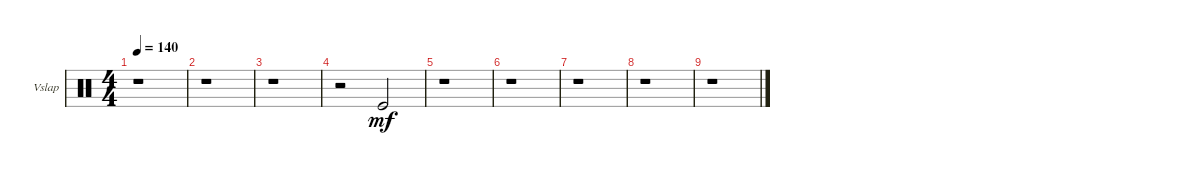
\defaultSystemsLayout 4
\bracketExtendMode groupsimilarinstruments
\firstSystemTrackNameOrientation horizontal
\otherSystemsTrackNameOrientation horizontal
\track ("Vibraslap" "Vslap") {instrument percussion}
\staff {score}
\articulation defaults
\ts (4 4)
\tempo 140
\clef neutral
\scale
0.218045
\ks c
r.1{dy mf} |
\scale
0.218045 r.1 |
\scale
0.218045 r.1 |
\scale
0.345865 r.2 "Kick (hit)".2 |
\scale
0.25 r.1 |
\scale
0.25 r.1 |
\scale
0.25 r.1 |
\scale
0.25 r.1 |
r.1
